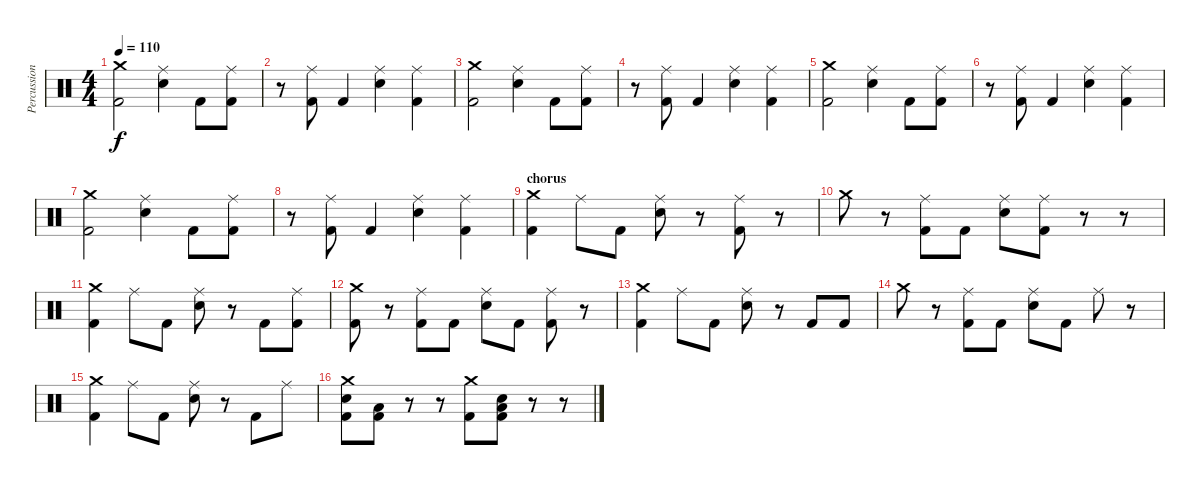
\track ("Percussion" "Percussion") {instrument percussion}
\staff {score}
\articulation defaults
\ts (4 4)
\tempo 110
\clef neutral
\ks c
("Crash medium (hit)" "Kick (hit) 2").2{dy f} ("Ride (middle)" "Electric Snare (hit)").4 "Kick (hit) 2".8 ("Ride (middle)" "Kick (hit) 2").8 |
r.8 ("Ride (middle)" "Kick (hit) 2").8 "Kick (hit) 2".4 ("Ride (middle)" "Electric Snare (hit)").4 ("Ride (middle)" "Kick (hit) 2").4 |
("Crash medium (hit)" "Kick (hit) 2").2 ("Ride (middle)" "Electric Snare (hit)").4 "Kick (hit) 2".8 ("Ride (middle)" "Kick (hit) 2").8 |
r.8 ("Ride (middle)" "Kick (hit) 2").8 "Kick (hit) 2".4 ("Ride (middle)" "Electric Snare (hit)").4 ("Ride (middle)" "Kick (hit) 2").4 |
("Crash medium (hit)" "Kick (hit) 2").2 ("Ride (middle)" "Electric Snare (hit)").4 "Kick (hit) 2".8 ("Ride (middle)" "Kick (hit) 2").8 |
r.8 ("Ride (middle)" "Kick (hit) 2").8 "Kick (hit) 2".4 ("Ride (middle)" "Electric Snare (hit)").4 ("Ride (middle)" "Kick (hit) 2").4 |
("Crash medium (hit)" "Kick (hit) 2").2 ("Ride (middle)" "Electric Snare (hit)").4 "Kick (hit) 2".8 ("Ride (middle)" "Kick (hit) 2").8 |
r.8 ("Ride (middle)" "Kick (hit) 2").8 "Kick (hit) 2".4 ("Ride (middle)" "Electric Snare (hit)").4 ("Ride (middle)" "Kick (hit) 2").4 |
\section ("" "chorus")
("Crash medium (hit)" "Kick (hit) 2").4 "Ride (middle)".8 "Kick (hit) 2".8 ("Ride (middle)" "Electric Snare (hit)").8 r.8 ("Ride (middle)" "Kick (hit) 2").8 r.8 |
"Crash medium (hit)".8 r.8 ("Ride (middle)" "Kick (hit) 2").8 "Kick (hit) 2".8 ("Ride (middle)" "Electric Snare (hit)").8 ("Ride (middle)" "Kick (hit) 2").8 r.8 r.8 |
("Crash medium (hit)" "Kick (hit) 2").4 "Ride (middle)".8 "Kick (hit) 2".8 ("Ride (middle)" "Electric Snare (hit)").8 r.8 "Kick (hit) 2".8 ("Ride (middle)" "Kick (hit) 2").8 |
("Crash medium (hit)" "Kick (hit) 2").8 r.8 ("Ride (middle)" "Kick (hit) 2").8 "Kick (hit) 2".8 ("Ride (middle)" "Electric Snare (hit)").8 "Kick (hit) 2".8 ("Ride (middle)" "Kick (hit) 2").8 r.8 |
("Crash medium (hit)" "Kick (hit) 2").4 "Ride (middle)".8 "Kick (hit) 2".8 ("Ride (middle)" "Electric Snare (hit)").8 r.8 "Kick (hit) 2".8 "Kick (hit) 2".8 |
"Crash medium (hit)".8 r.8 ("Ride (middle)" "Kick (hit) 2").8 "Kick (hit) 2".8 ("Ride (middle)" "Electric Snare (hit)").8 "Kick (hit) 2".8 "Ride (middle)".8 r.8 |
("Crash medium (hit)" "Kick (hit) 2").4 "Ride (middle)".8 "Kick (hit) 2".8 ("Ride (middle)" "Electric Snare (hit)").8 r.8 "Kick (hit) 2".8 "Ride (middle)".8 |
("Crash medium (hit)" "Electric Snare (hit)" "Kick (hit) 2").8{bd 60} ("Low Tom (hit)" "Kick (hit) 2").8{bd 60} r.8 r.8 ("Crash medium (hit)" "Kick (hit) 2").8{bd 60} ("Low Floor Tom (hit)" "Electric Snare (hit)" "Kick (hit) 2").8{bd 60} r.8 r.8
